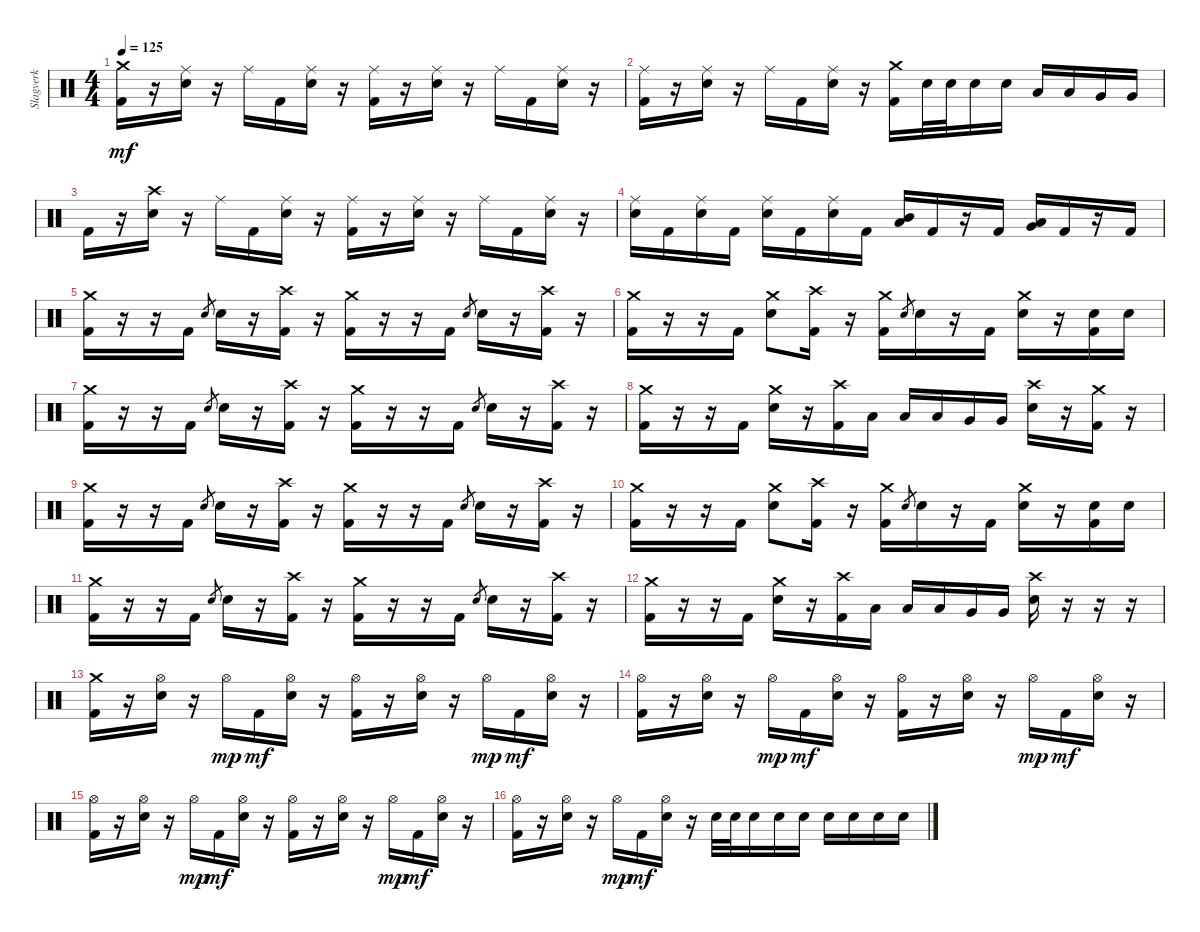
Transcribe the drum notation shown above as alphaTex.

\track ("Slagverk" "Slagverk") {instrument percussion}
\staff {score}
\articulation defaults
\ts (4 4)
\tempo 125
\clef neutral
\ks c
("Crash medium (hit)" "Kick (hit) 2").16{dy mf} r.16 ("Ride (middle)" "Electric Snare (hit)").16 r.16 "Ride (middle)".16 "Kick (hit) 2".16 ("Ride (middle)" "Electric Snare (hit)").16 r.16 ("Ride (middle)" "Kick (hit) 2").16 r.16 ("Ride (middle)" "Electric Snare (hit)").16 r.16 "Ride (middle)".16 "Kick (hit) 2".16 ("Ride (middle)" "Electric Snare (hit)").16 r.16 |
("Ride (middle)" "Kick (hit) 2").16 r.16 ("Ride (middle)" "Electric Snare (hit)").16 r.16 "Ride (middle)".16 "Kick (hit) 2".16 ("Ride (middle)" "Electric Snare (hit)").16 r.16 ("Crash medium (hit)" "Kick (hit) 2").16 "Electric Snare (hit)".32 "Electric Snare (hit)".32 "Electric Snare (hit)".16 "Electric Snare (hit)".16 "Low Tom (hit)".16 "Low Tom (hit)".16 "Very Low Tom (hit)".16 "Very Low Tom (hit)".16 |
"Kick (hit) 2".16 r.16 ("Crash high (hit)" "Electric Snare (hit)").16 r.16 "Ride (middle)".16 "Kick (hit) 2".16 ("Ride (middle)" "Electric Snare (hit)").16 r.16 ("Ride (middle)" "Kick (hit) 2").16 r.16 ("Ride (middle)" "Electric Snare (hit)").16 r.16 "Ride (middle)".16 "Kick (hit) 2".16 ("Ride (middle)" "Electric Snare (hit)").16 r.16 |
("Ride (middle)" "Electric Snare (hit)").16 "Kick (hit) 2".16 ("Ride (middle)" "Electric Snare (hit)").16 "Kick (hit) 2".16 ("Ride (middle)" "Electric Snare (hit)").16 "Kick (hit) 2".16 ("Ride (middle)" "Electric Snare (hit)").16 "Kick (hit) 2".16 ("Mid Tom (hit)" "Low Tom (hit)").16 "Kick (hit) 2".16 r.16 "Kick (hit) 2".16 ("Low Tom (hit)" "Very Low Tom (hit)").16 "Kick (hit) 2".16 r.16 "Kick (hit) 2".16 |
("Crash medium (hit)" "Kick (hit) 2").16 r.16 r.16 "Kick (hit) 2".16 "Electric Snare (hit)".8{gr} "Electric Snare (hit)".16 r.16 ("Crash high (hit)" "Kick (hit) 2").16 r.16 ("Crash medium (hit)" "Kick (hit) 2").16 r.16 r.16 "Kick (hit) 2".16 "Electric Snare (hit)".8{gr} "Electric Snare (hit)".16 r.16 ("Crash high (hit)" "Kick (hit) 2").16 r.16 |
("Crash medium (hit)" "Kick (hit) 2").16 r.16 r.16 "Kick (hit) 2".16 ("Crash medium (hit)" "Electric Snare (hit)").8 ("Crash high (hit)" "Kick (hit) 2").16 r.16 ("Crash medium (hit)" "Kick (hit) 2").16 "Electric Snare (hit)".8{gr} "Electric Snare (hit)".16 r.16 "Kick (hit) 2".16 ("Crash medium (hit)" "Electric Snare (hit)").16 r.16 ("Electric Snare (hit)" "Kick (hit) 2").16 "Electric Snare (hit)".16 |
("Crash medium (hit)" "Kick (hit) 2").16 r.16 r.16 "Kick (hit) 2".16 "Electric Snare (hit)".8{gr} "Electric Snare (hit)".16 r.16 ("Crash high (hit)" "Kick (hit) 2").16 r.16 ("Crash medium (hit)" "Kick (hit) 2").16 r.16 r.16 "Kick (hit) 2".16 "Electric Snare (hit)".8{gr} "Electric Snare (hit)".16 r.16 ("Crash high (hit)" "Kick (hit) 2").16 r.16 |
("Crash medium (hit)" "Kick (hit) 2").16 r.16 r.16 "Kick (hit) 2".16 ("Crash medium (hit)" "Electric Snare (hit)").16 r.16 ("Crash high (hit)" "Kick (hit) 2").16 "Low Tom (hit)".16 "Low Tom (hit)".16 "Low Tom (hit)".16 "Very Low Tom (hit)".16 "Very Low Tom (hit)".16 ("Crash high (hit)" "Electric Snare (hit)").16 r.16 ("Crash medium (hit)" "Kick (hit) 2").16 r.16 |
("Crash medium (hit)" "Kick (hit) 2").16 r.16 r.16 "Kick (hit) 2".16 "Electric Snare (hit)".8{gr} "Electric Snare (hit)".16 r.16 ("Crash high (hit)" "Kick (hit) 2").16 r.16 ("Crash medium (hit)" "Kick (hit) 2").16 r.16 r.16 "Kick (hit) 2".16 "Electric Snare (hit)".8{gr} "Electric Snare (hit)".16 r.16 ("Crash high (hit)" "Kick (hit) 2").16 r.16 |
("Crash medium (hit)" "Kick (hit) 2").16 r.16 r.16 "Kick (hit) 2".16 ("Crash medium (hit)" "Electric Snare (hit)").8 ("Crash high (hit)" "Kick (hit) 2").16 r.16 ("Crash medium (hit)" "Kick (hit) 2").16 "Electric Snare (hit)".8{gr} "Electric Snare (hit)".16 r.16 "Kick (hit) 2".16 ("Crash medium (hit)" "Electric Snare (hit)").16 r.16 ("Electric Snare (hit)" "Kick (hit) 2").16 "Electric Snare (hit)".16 |
("Crash medium (hit)" "Kick (hit) 2").16 r.16 r.16 "Kick (hit) 2".16 "Electric Snare (hit)".8{gr} "Electric Snare (hit)".16 r.16 ("Crash high (hit)" "Kick (hit) 2").16 r.16 ("Crash medium (hit)" "Kick (hit) 2").16 r.16 r.16 "Kick (hit) 2".16 "Electric Snare (hit)".8{gr} "Electric Snare (hit)".16 r.16 ("Crash high (hit)" "Kick (hit) 2").16 r.16 |
("Crash medium (hit)" "Kick (hit) 2").16 r.16 r.16 "Kick (hit) 2".16 ("Crash medium (hit)" "Electric Snare (hit)").16 r.16 ("Crash high (hit)" "Kick (hit) 2").16 "Low Tom (hit)".16 "Low Tom (hit)".16 "Low Tom (hit)".16 "Very Low Tom (hit)".16 "Very Low Tom (hit)".16 ("Crash high (hit)" "Electric Snare (hit)").16 r.16 r.16 r.16 |
("Crash medium (hit)" "Kick (hit) 2").16 r.16 ("Hi-Hat (open)" "Electric Snare (hit)").16 r.16 "Hi-Hat (open)".16{dy mp} "Kick (hit) 2".16{dy mf} ("Hi-Hat (open)" "Electric Snare (hit)").16 r.16 ("Hi-Hat (open)" "Kick (hit) 2").16 r.16 ("Hi-Hat (open)" "Electric Snare (hit)").16 r.16 "Hi-Hat (open)".16{dy mp} "Kick (hit) 2".16{dy mf} ("Hi-Hat (open)" "Electric Snare (hit)").16 r.16 |
("Hi-Hat (open)" "Kick (hit) 2").16 r.16 ("Hi-Hat (open)" "Electric Snare (hit)").16 r.16 "Hi-Hat (open)".16{dy mp} "Kick (hit) 2".16{dy mf} ("Hi-Hat (open)" "Electric Snare (hit)").16 r.16 ("Hi-Hat (open)" "Kick (hit) 2").16 r.16 ("Hi-Hat (open)" "Electric Snare (hit)").16 r.16 "Hi-Hat (open)".16{dy mp} "Kick (hit) 2".16{dy mf} ("Hi-Hat (open)" "Electric Snare (hit)").16 r.16 |
("Hi-Hat (open)" "Kick (hit) 2").16 r.16 ("Hi-Hat (open)" "Electric Snare (hit)").16 r.16 "Hi-Hat (open)".16{dy mp} "Kick (hit) 2".16{dy mf} ("Hi-Hat (open)" "Electric Snare (hit)").16 r.16 ("Hi-Hat (open)" "Kick (hit) 2").16 r.16 ("Hi-Hat (open)" "Electric Snare (hit)").16 r.16 "Hi-Hat (open)".16{dy mp} "Kick (hit) 2".16{dy mf} ("Hi-Hat (open)" "Electric Snare (hit)").16 r.16 |
("Hi-Hat (open)" "Kick (hit) 2").16 r.16 ("Hi-Hat (open)" "Electric Snare (hit)").16 r.16 "Hi-Hat (open)".16{dy mp} "Kick (hit) 2".16{dy mf} ("Hi-Hat (open)" "Electric Snare (hit)").16 r.16 "Electric Snare (hit)".32 "Electric Snare (hit)".32 "Electric Snare (hit)".16 "Electric Snare (hit)".16 "Electric Snare (hit)".16 "Electric Snare (hit)".16 "Electric Snare (hit)".16 "Electric Snare (hit)".16 "Electric Snare (hit)".16
